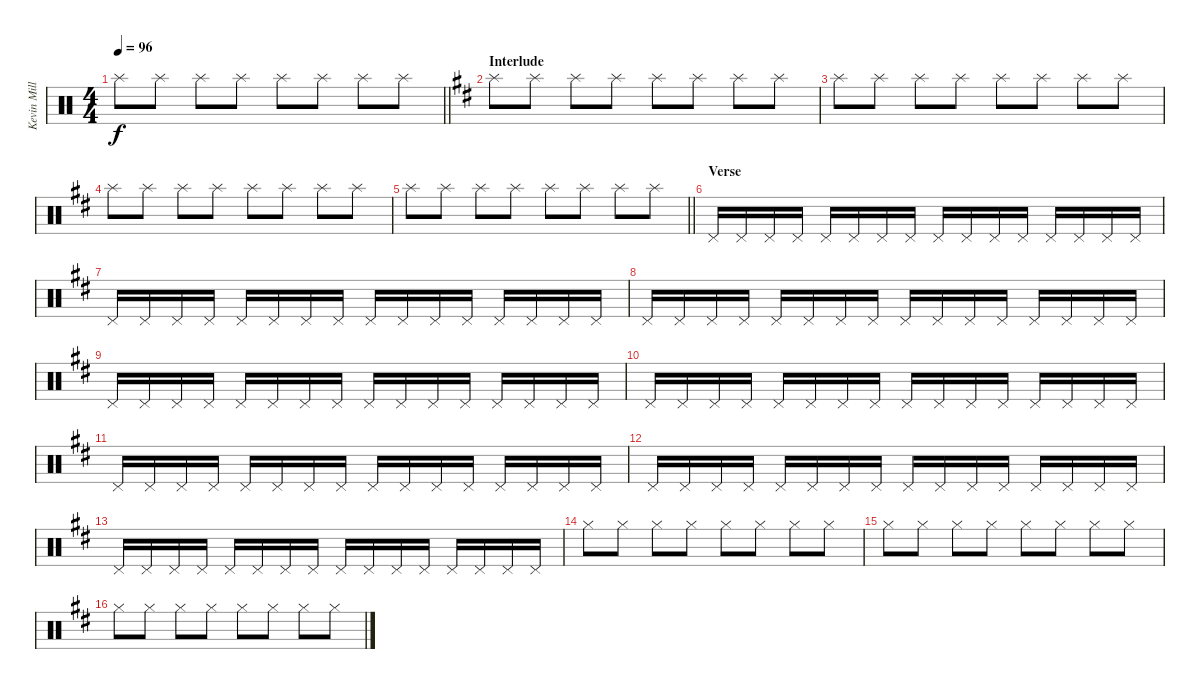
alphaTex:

\track ("Kevin Miller (Drums)" "Kevin Mill") {instrument percussion}
\staff {score}
\articulation defaults
\ts (4 4)
\tempo 96
\clef neutral
\barLineRight lightlight
\ks c "Splash (hit)".8{dy f} "Splash (hit)".8 "Splash (hit)".8 "Splash (hit)".8 "Splash (hit)".8 "Splash (hit)".8 "Splash (hit)".8 "Splash (hit)".8
|
\section ("" "Interlude")
\ks d "Splash (hit)".8 "Splash (hit)".8 "Splash (hit)".8 "Splash (hit)".8 "Splash (hit)".8 "Splash (hit)".8 "Splash (hit)".8 "Splash (hit)".8
|
"Splash (hit)".8 "Splash (hit)".8 "Splash (hit)".8 "Splash (hit)".8 "Splash (hit)".8 "Splash (hit)".8 "Splash (hit)".8 "Splash (hit)".8 |
"Splash (hit)".8 "Splash (hit)".8 "Splash (hit)".8 "Splash (hit)".8 "Splash (hit)".8 "Splash (hit)".8 "Splash (hit)".8 "Splash (hit)".8 |
\barLineRight lightlight "Splash (hit)".8 "Splash (hit)".8 "Splash (hit)".8 "Splash (hit)".8 "Splash (hit)".8 "Splash (hit)".8 "Splash (hit)".8 "Splash (hit)".8
|
\section ("" "Verse")
"Pedal Hi-Hat (hit)".16 "Pedal Hi-Hat (hit)".16 "Pedal Hi-Hat (hit)".16 "Pedal Hi-Hat (hit)".16 "Pedal Hi-Hat (hit)".16 "Pedal Hi-Hat (hit)".16 "Pedal Hi-Hat (hit)".16 "Pedal Hi-Hat (hit)".16 "Pedal Hi-Hat (hit)".16 "Pedal Hi-Hat (hit)".16 "Pedal Hi-Hat (hit)".16 "Pedal Hi-Hat (hit)".16 "Pedal Hi-Hat (hit)".16 "Pedal Hi-Hat (hit)".16 "Pedal Hi-Hat (hit)".16 "Pedal Hi-Hat (hit)".16 |
"Pedal Hi-Hat (hit)".16 "Pedal Hi-Hat (hit)".16 "Pedal Hi-Hat (hit)".16 "Pedal Hi-Hat (hit)".16 "Pedal Hi-Hat (hit)".16 "Pedal Hi-Hat (hit)".16 "Pedal Hi-Hat (hit)".16 "Pedal Hi-Hat (hit)".16 "Pedal Hi-Hat (hit)".16 "Pedal Hi-Hat (hit)".16 "Pedal Hi-Hat (hit)".16 "Pedal Hi-Hat (hit)".16 "Pedal Hi-Hat (hit)".16 "Pedal Hi-Hat (hit)".16 "Pedal Hi-Hat (hit)".16 "Pedal Hi-Hat (hit)".16 |
"Pedal Hi-Hat (hit)".16 "Pedal Hi-Hat (hit)".16 "Pedal Hi-Hat (hit)".16 "Pedal Hi-Hat (hit)".16 "Pedal Hi-Hat (hit)".16 "Pedal Hi-Hat (hit)".16 "Pedal Hi-Hat (hit)".16 "Pedal Hi-Hat (hit)".16 "Pedal Hi-Hat (hit)".16 "Pedal Hi-Hat (hit)".16 "Pedal Hi-Hat (hit)".16 "Pedal Hi-Hat (hit)".16 "Pedal Hi-Hat (hit)".16 "Pedal Hi-Hat (hit)".16 "Pedal Hi-Hat (hit)".16 "Pedal Hi-Hat (hit)".16 |
"Pedal Hi-Hat (hit)".16 "Pedal Hi-Hat (hit)".16 "Pedal Hi-Hat (hit)".16 "Pedal Hi-Hat (hit)".16 "Pedal Hi-Hat (hit)".16 "Pedal Hi-Hat (hit)".16 "Pedal Hi-Hat (hit)".16 "Pedal Hi-Hat (hit)".16 "Pedal Hi-Hat (hit)".16 "Pedal Hi-Hat (hit)".16 "Pedal Hi-Hat (hit)".16 "Pedal Hi-Hat (hit)".16 "Pedal Hi-Hat (hit)".16 "Pedal Hi-Hat (hit)".16 "Pedal Hi-Hat (hit)".16 "Pedal Hi-Hat (hit)".16 |
"Pedal Hi-Hat (hit)".16 "Pedal Hi-Hat (hit)".16 "Pedal Hi-Hat (hit)".16 "Pedal Hi-Hat (hit)".16 "Pedal Hi-Hat (hit)".16 "Pedal Hi-Hat (hit)".16 "Pedal Hi-Hat (hit)".16 "Pedal Hi-Hat (hit)".16 "Pedal Hi-Hat (hit)".16 "Pedal Hi-Hat (hit)".16 "Pedal Hi-Hat (hit)".16 "Pedal Hi-Hat (hit)".16 "Pedal Hi-Hat (hit)".16 "Pedal Hi-Hat (hit)".16 "Pedal Hi-Hat (hit)".16 "Pedal Hi-Hat (hit)".16 |
"Pedal Hi-Hat (hit)".16 "Pedal Hi-Hat (hit)".16 "Pedal Hi-Hat (hit)".16 "Pedal Hi-Hat (hit)".16 "Pedal Hi-Hat (hit)".16 "Pedal Hi-Hat (hit)".16 "Pedal Hi-Hat (hit)".16 "Pedal Hi-Hat (hit)".16 "Pedal Hi-Hat (hit)".16 "Pedal Hi-Hat (hit)".16 "Pedal Hi-Hat (hit)".16 "Pedal Hi-Hat (hit)".16 "Pedal Hi-Hat (hit)".16 "Pedal Hi-Hat (hit)".16 "Pedal Hi-Hat (hit)".16 "Pedal Hi-Hat (hit)".16 |
"Pedal Hi-Hat (hit)".16 "Pedal Hi-Hat (hit)".16 "Pedal Hi-Hat (hit)".16 "Pedal Hi-Hat (hit)".16 "Pedal Hi-Hat (hit)".16 "Pedal Hi-Hat (hit)".16 "Pedal Hi-Hat (hit)".16 "Pedal Hi-Hat (hit)".16 "Pedal Hi-Hat (hit)".16 "Pedal Hi-Hat (hit)".16 "Pedal Hi-Hat (hit)".16 "Pedal Hi-Hat (hit)".16 "Pedal Hi-Hat (hit)".16 "Pedal Hi-Hat (hit)".16 "Pedal Hi-Hat (hit)".16 "Pedal Hi-Hat (hit)".16 |
"Pedal Hi-Hat (hit)".16 "Pedal Hi-Hat (hit)".16 "Pedal Hi-Hat (hit)".16 "Pedal Hi-Hat (hit)".16 "Pedal Hi-Hat (hit)".16 "Pedal Hi-Hat (hit)".16 "Pedal Hi-Hat (hit)".16 "Pedal Hi-Hat (hit)".16 "Pedal Hi-Hat (hit)".16 "Pedal Hi-Hat (hit)".16 "Pedal Hi-Hat (hit)".16 "Pedal Hi-Hat (hit)".16 "Pedal Hi-Hat (hit)".16 "Pedal Hi-Hat (hit)".16 "Pedal Hi-Hat (hit)".16 "Pedal Hi-Hat (hit)".16 |
"Hi-Hat (closed)".8 "Hi-Hat (closed)".8 "Hi-Hat (closed)".8 "Hi-Hat (closed)".8 "Hi-Hat (closed)".8 "Hi-Hat (closed)".8 "Hi-Hat (closed)".8 "Hi-Hat (closed)".8 |
"Hi-Hat (closed)".8 "Hi-Hat (closed)".8 "Hi-Hat (closed)".8 "Hi-Hat (closed)".8 "Hi-Hat (closed)".8 "Hi-Hat (closed)".8 "Hi-Hat (closed)".8 "Hi-Hat (closed)".8 |
"Hi-Hat (closed)".8 "Hi-Hat (closed)".8 "Hi-Hat (closed)".8 "Hi-Hat (closed)".8 "Hi-Hat (closed)".8 "Hi-Hat (closed)".8 "Hi-Hat (closed)".8 "Hi-Hat (closed)".8
